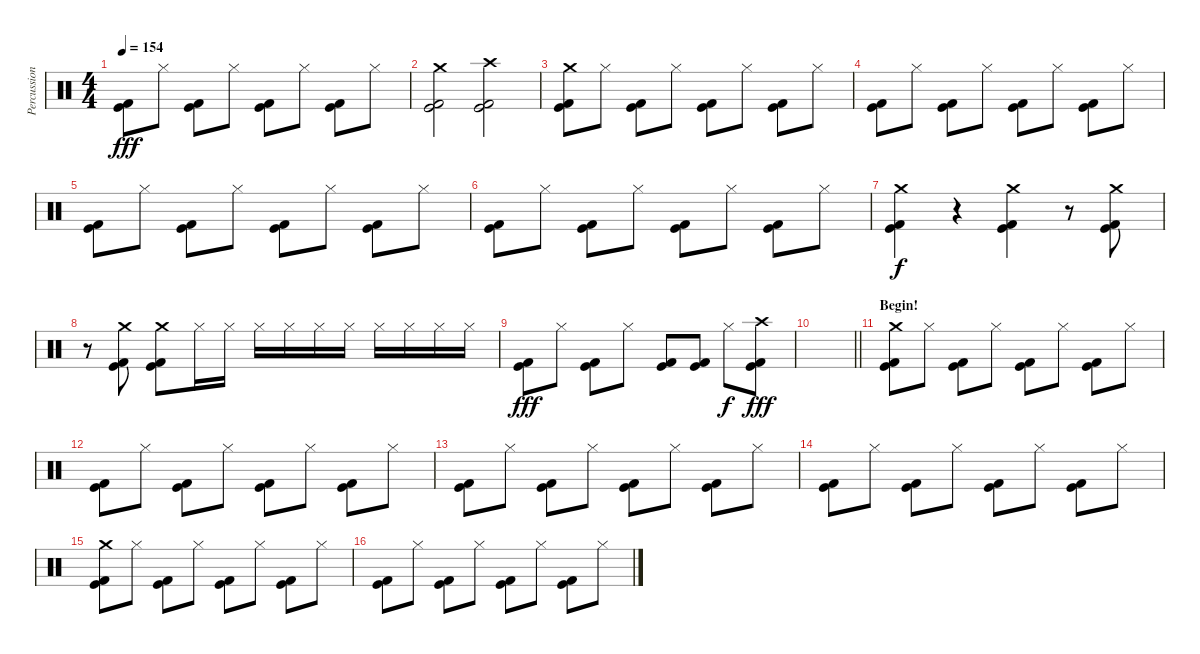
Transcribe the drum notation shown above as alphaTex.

\track ("Percussion" "Percussion") {instrument percussion}
\staff {score}
\articulation defaults
\ts (4 4)
\tempo 154
\clef neutral
\ks c
("Kick (hit)" "Kick (hit) 2").8{dy fff} "Hi-Hat (closed)".8 ("Kick (hit)" "Kick (hit) 2").8 "Hi-Hat (closed)".8 ("Kick (hit)" "Kick (hit) 2").8 "Hi-Hat (closed)".8 ("Kick (hit)" "Kick (hit) 2").8 "Hi-Hat (closed)".8 |
("Crash medium (hit)" "Kick (hit)" "Kick (hit) 2").2 ("Crash high (hit)" "Kick (hit)" "Kick (hit) 2").2 |
("Crash medium (hit)" "Kick (hit)" "Kick (hit) 2").8 "Hi-Hat (closed)".8 ("Kick (hit)" "Kick (hit) 2").8 "Hi-Hat (closed)".8 ("Kick (hit)" "Kick (hit) 2").8 "Hi-Hat (closed)".8 ("Kick (hit)" "Kick (hit) 2").8 "Hi-Hat (closed)".8 |
("Kick (hit)" "Kick (hit) 2").8 "Hi-Hat (closed)".8 ("Kick (hit)" "Kick (hit) 2").8 "Hi-Hat (closed)".8 ("Kick (hit)" "Kick (hit) 2").8 "Hi-Hat (closed)".8 ("Kick (hit)" "Kick (hit) 2").8 "Hi-Hat (closed)".8 |
("Kick (hit)" "Kick (hit) 2").8 "Hi-Hat (closed)".8 ("Kick (hit)" "Kick (hit) 2").8 "Hi-Hat (closed)".8 ("Kick (hit)" "Kick (hit) 2").8 "Hi-Hat (closed)".8 ("Kick (hit)" "Kick (hit) 2").8 "Hi-Hat (closed)".8 |
("Kick (hit)" "Kick (hit) 2").8 "Hi-Hat (closed)".8 ("Kick (hit)" "Kick (hit) 2").8 "Hi-Hat (closed)".8 ("Kick (hit)" "Kick (hit) 2").8 "Hi-Hat (closed)".8 ("Kick (hit)" "Kick (hit) 2").8 "Hi-Hat (closed)".8 |
("Crash medium (hit)" "Kick (hit)" "Kick (hit) 2").4{dy f} r.4 ("Crash medium (hit)" "Kick (hit)" "Kick (hit) 2").4 r.8 ("Crash medium (hit)" "Kick (hit)" "Kick (hit) 2").8 |
r.8 ("Crash medium (hit)" "Kick (hit)" "Kick (hit) 2").8 ("Crash medium (hit)" "Kick (hit)" "Kick (hit) 2").8 "Hi-Hat (closed)".16 "Hi-Hat (closed)".16 "Hi-Hat (closed)".16 "Hi-Hat (closed)".16 "Hi-Hat (closed)".16 "Hi-Hat (closed)".16 "Hi-Hat (closed)".16 "Hi-Hat (closed)".16 "Hi-Hat (closed)".16 "Hi-Hat (closed)".16 |
("Kick (hit)" "Kick (hit) 2").8{dy fff} "Hi-Hat (closed)".8 ("Kick (hit)" "Kick (hit) 2").8 "Hi-Hat (closed)".8 ("Kick (hit)" "Kick (hit) 2").8 ("Kick (hit)" "Kick (hit) 2").8 "Hi-Hat (closed)".8{dy f} ("Crash high (hit)" "Kick (hit)" "Kick (hit) 2").8{dy fff} |
\barLineRight lightlight
|
\section ("" "Begin!")
("Crash medium (hit)" "Kick (hit)" "Kick (hit) 2").8 "Hi-Hat (closed)".8 ("Kick (hit)" "Kick (hit) 2").8 "Hi-Hat (closed)".8 ("Kick (hit)" "Kick (hit) 2").8 "Hi-Hat (closed)".8 ("Kick (hit)" "Kick (hit) 2").8 "Hi-Hat (closed)".8 |
("Kick (hit)" "Kick (hit) 2").8 "Hi-Hat (closed)".8 ("Kick (hit)" "Kick (hit) 2").8 "Hi-Hat (closed)".8 ("Kick (hit)" "Kick (hit) 2").8 "Hi-Hat (closed)".8 ("Kick (hit)" "Kick (hit) 2").8 "Hi-Hat (closed)".8 |
("Kick (hit)" "Kick (hit) 2").8 "Hi-Hat (closed)".8 ("Kick (hit)" "Kick (hit) 2").8 "Hi-Hat (closed)".8 ("Kick (hit)" "Kick (hit) 2").8 "Hi-Hat (closed)".8 ("Kick (hit)" "Kick (hit) 2").8 "Hi-Hat (closed)".8 |
("Kick (hit)" "Kick (hit) 2").8 "Hi-Hat (closed)".8 ("Kick (hit)" "Kick (hit) 2").8 "Hi-Hat (closed)".8 ("Kick (hit)" "Kick (hit) 2").8 "Hi-Hat (closed)".8 ("Kick (hit)" "Kick (hit) 2").8 "Hi-Hat (closed)".8 |
("Crash medium (hit)" "Kick (hit)" "Kick (hit) 2").8 "Hi-Hat (closed)".8 ("Kick (hit)" "Kick (hit) 2").8 "Hi-Hat (closed)".8 ("Kick (hit)" "Kick (hit) 2").8 "Hi-Hat (closed)".8 ("Kick (hit)" "Kick (hit) 2").8 "Hi-Hat (closed)".8 |
("Kick (hit)" "Kick (hit) 2").8 "Hi-Hat (closed)".8 ("Kick (hit)" "Kick (hit) 2").8 "Hi-Hat (closed)".8 ("Kick (hit)" "Kick (hit) 2").8 "Hi-Hat (closed)".8 ("Kick (hit)" "Kick (hit) 2").8 "Hi-Hat (closed)".8
